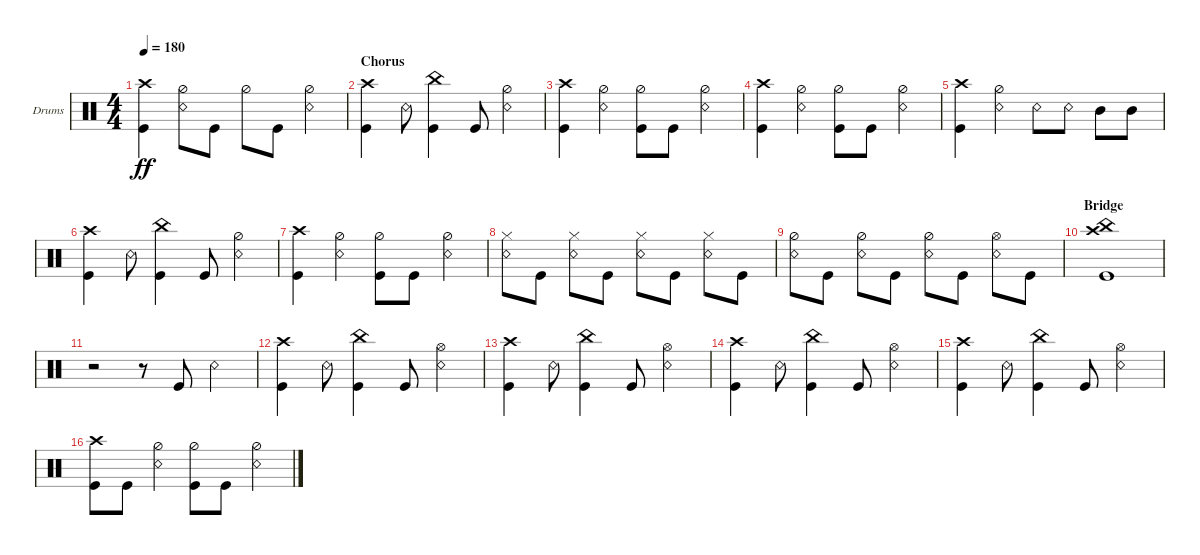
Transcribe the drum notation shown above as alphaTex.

\defaultSystemsLayout 4
\bracketExtendMode groupsimilarinstruments
\firstSystemTrackNameOrientation horizontal
\otherSystemsTrackNameOrientation horizontal
\track ("Drumkit" "Drums") {instrument percussion}
\staff {score}
\articulation defaults
\ts (4 4)
\tempo 180
\clef neutral
\ks c
("Crash high (hit)" "Kick (hit)").4{dy ff} ("Snare (rim shot)" "Hi-Hat (half)").8 "Kick (hit)".8 "Hi-Hat (half)".8 "Kick (hit)".8 ("Snare (rim shot)" "Hi-Hat (half)").4 |
\section ("" "Chorus")
("Crash high (hit)" "Kick (hit)").4 "Snare (rim shot)".8 ("China (hit)" "Kick (hit)").4 "Kick (hit)".8 ("Snare (rim shot)" "Hi-Hat (half)").4 |
("Crash high (hit)" "Kick (hit)").4 ("Snare (rim shot)" "Hi-Hat (half)").4 ("Kick (hit)" "Hi-Hat (half)").8 "Kick (hit)".8 ("Snare (rim shot)" "Hi-Hat (half)").4 |
("Crash high (hit)" "Kick (hit)").4 ("Snare (rim shot)" "Hi-Hat (half)").4 ("Kick (hit)" "Hi-Hat (half)").8 "Kick (hit)".8 ("Snare (rim shot)" "Hi-Hat (half)").4 |
("Crash high (hit)" "Kick (hit)").4 ("Snare (rim shot)" "Hi-Hat (half)").4 "Snare (rim shot)".8 "Snare (rim shot)".8 "Mid Tom (hit)".8 "Mid Tom (hit)".8 |
("Crash high (hit)" "Kick (hit)").4 "Snare (rim shot)".8 ("China (hit)" "Kick (hit)").4 "Kick (hit)".8 ("Snare (rim shot)" "Hi-Hat (half)").4 |
("Crash high (hit)" "Kick (hit)").4 ("Snare (rim shot)" "Hi-Hat (half)").4 ("Kick (hit)" "Hi-Hat (half)").8 "Kick (hit)".8 ("Snare (rim shot)" "Hi-Hat (half)").4 |
("Snare (rim shot)" "Hi-Hat (closed)").8 "Kick (hit)".8 ("Snare (rim shot)" "Hi-Hat (closed)").8 "Kick (hit)".8 ("Snare (rim shot)" "Hi-Hat (closed)").8 "Kick (hit)".8 ("Snare (rim shot)" "Hi-Hat (closed)").8 "Kick (hit)".8 |
("Snare (rim shot)" "Hi-Hat (half)").8 "Kick (hit)".8 ("Snare (rim shot)" "Hi-Hat (half)").8 "Kick (hit)".8 ("Snare (rim shot)" "Hi-Hat (half)").8 "Kick (hit)".8 ("Snare (rim shot)" "Hi-Hat (open)").8 "Kick (hit)".8 |
\section ("" "Bridge")
("Crash high (hit)" "China (hit)" "Kick (hit)").1 |
r.2 r.8 "Kick (hit)".8 "Snare (rim shot)".4 |
("Kick (hit)" "Crash high (hit)").4 "Snare (rim shot)".8 ("China (hit)" "Kick (hit)").4 "Kick (hit)".8 ("Snare (rim shot)" "Hi-Hat (open)").4 |
("Kick (hit)" "Crash high (hit)").4 "Snare (rim shot)".8 ("China (hit)" "Kick (hit)").4 "Kick (hit)".8 ("Snare (rim shot)" "Hi-Hat (open)").4 |
("Kick (hit)" "Crash high (hit)").4 "Snare (rim shot)".8 ("China (hit)" "Kick (hit)").4 "Kick (hit)".8 ("Snare (rim shot)" "Hi-Hat (open)").4 |
("Kick (hit)" "Crash high (hit)").4 "Snare (rim shot)".8 ("China (hit)" "Kick (hit)").4 "Kick (hit)".8 ("Snare (rim shot)" "Hi-Hat (open)").4 |
("Kick (hit)" "Crash high (hit)").8 "Kick (hit)".8 ("Hi-Hat (half)" "Snare (rim shot)").4 ("Kick (hit)" "Hi-Hat (half)").8 "Kick (hit)".8 ("Hi-Hat (half)" "Snare (rim shot)").4
